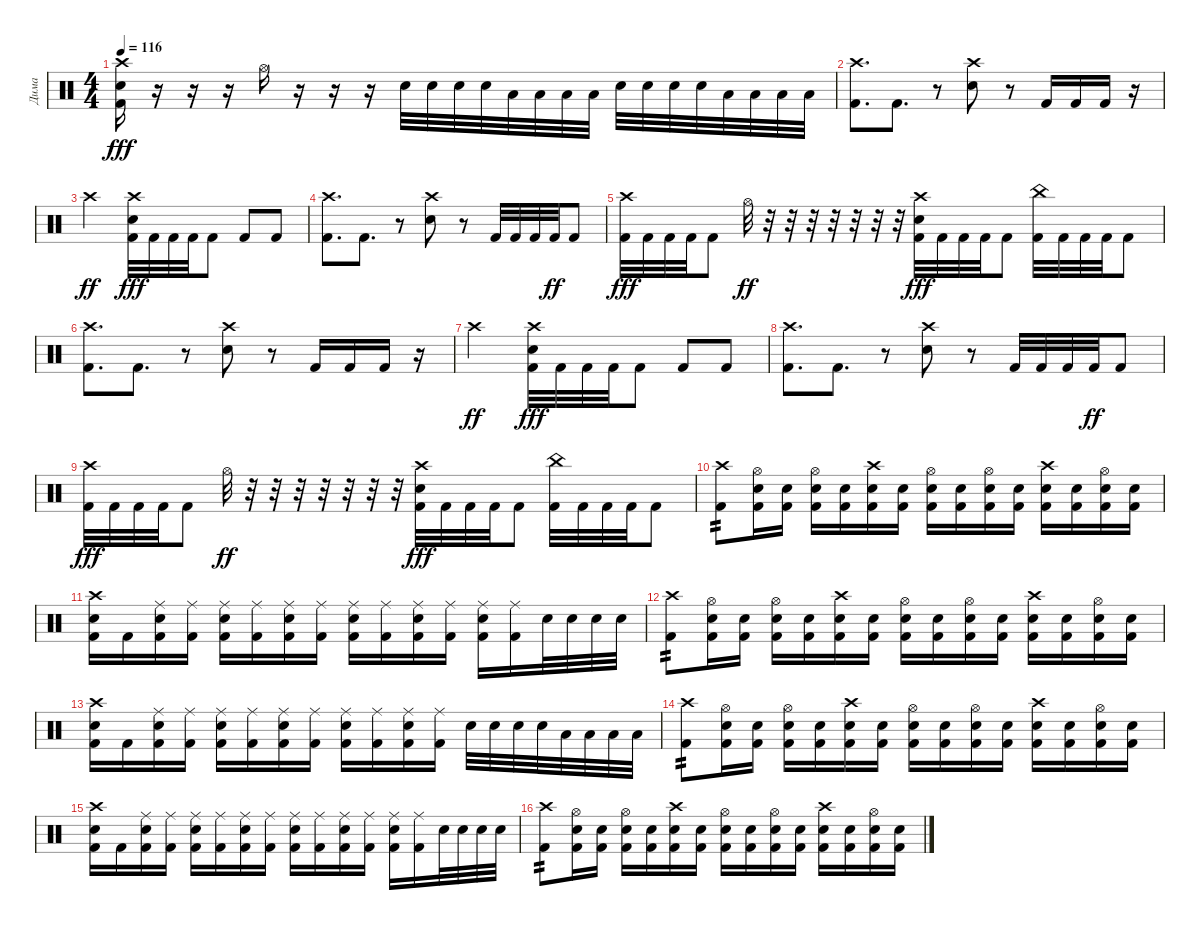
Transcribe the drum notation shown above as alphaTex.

\track ("Дима " "Дима ") {instrument percussion}
\staff {score}
\articulation defaults
\ts (4 4)
\tempo 116
\clef neutral
\ks c
("Crash high (hit)" "Snare (hit) 2" "Kick (hit) 2").16{dy fff} r.16 r.16 r.16 "Hi-Hat (open)".16 r.16 r.16 r.16 "Snare (hit) 2".32 "Snare (hit) 2".32 "Snare (hit) 2".32 "Snare (hit) 2".32 "Low Tom (hit)".32 "Low Tom (hit)".32 "Low Tom (hit)".32 "Low Tom (hit)".32 "Snare (hit) 2".32 "Snare (hit) 2".32 "Snare (hit) 2".32 "Snare (hit) 2".32 "Low Tom (hit)".32 "Low Tom (hit)".32 "Low Tom (hit)".32 "Low Tom (hit)".32 |
("Crash high (hit)" "Kick (hit) 2").8{d} "Kick (hit) 2".8{d} r.8 ("Crash high (hit)" "Snare (hit) 2").8 r.8 "Kick (hit) 2".16 "Kick (hit) 2".16 "Kick (hit) 2".16 r.16 |
"Crash high (hit)".2{dy ff} ("Crash high (hit)" "Snare (hit) 2" "Kick (hit) 2").32{dy fff} "Kick (hit) 2".32 "Kick (hit) 2".32 "Kick (hit) 2".32 "Kick (hit) 2".8 "Kick (hit) 2".8 "Kick (hit) 2".8 |
("Crash high (hit)" "Kick (hit) 2").8{d} "Kick (hit) 2".8{d} r.8 ("Crash high (hit)" "Snare (hit) 2").8 r.8 "Kick (hit) 2".32 "Kick (hit) 2".32 "Kick (hit) 2".32 "Kick (hit) 2".32{dy ff} "Kick (hit) 2".8 |
("Crash high (hit)" "Kick (hit) 2").32{dy fff} "Kick (hit) 2".32 "Kick (hit) 2".32 "Kick (hit) 2".32 "Kick (hit) 2".8 "Hi-Hat (open)".32{dy ff} r.32 r.32 r.32 r.32 r.32 r.32 r.32 ("Crash high (hit)" "Snare (hit) 2" "Kick (hit) 2").32{dy fff} "Kick (hit) 2".32 "Kick (hit) 2".32 "Kick (hit) 2".32 "Kick (hit) 2".8 ("China (hit)" "Kick (hit) 2").32 "Kick (hit) 2".32 "Kick (hit) 2".32 "Kick (hit) 2".32 "Kick (hit) 2".8 |
("Crash high (hit)" "Kick (hit) 2").8{d} "Kick (hit) 2".8{d} r.8 ("Crash high (hit)" "Snare (hit) 2").8 r.8 "Kick (hit) 2".16 "Kick (hit) 2".16 "Kick (hit) 2".16 r.16 |
"Crash high (hit)".2{dy ff} ("Crash high (hit)" "Snare (hit) 2" "Kick (hit) 2").32{dy fff} "Kick (hit) 2".32 "Kick (hit) 2".32 "Kick (hit) 2".32 "Kick (hit) 2".8 "Kick (hit) 2".8 "Kick (hit) 2".8 |
("Crash high (hit)" "Kick (hit) 2").8{d} "Kick (hit) 2".8{d} r.8 ("Crash high (hit)" "Snare (hit) 2").8 r.8 "Kick (hit) 2".32 "Kick (hit) 2".32 "Kick (hit) 2".32 "Kick (hit) 2".32{dy ff} "Kick (hit) 2".8 |
("Crash high (hit)" "Kick (hit) 2").32{dy fff} "Kick (hit) 2".32 "Kick (hit) 2".32 "Kick (hit) 2".32 "Kick (hit) 2".8 "Hi-Hat (open)".32{dy ff} r.32 r.32 r.32 r.32 r.32 r.32 r.32 ("Crash high (hit)" "Snare (hit) 2" "Kick (hit) 2").32{dy fff} "Kick (hit) 2".32 "Kick (hit) 2".32 "Kick (hit) 2".32 "Kick (hit) 2".8 ("China (hit)" "Kick (hit) 2").32 "Kick (hit) 2".32 "Kick (hit) 2".32 "Kick (hit) 2".32 "Kick (hit) 2".8 |
("Crash high (hit)" "Kick (hit) 2").8{tp 2} ("Hi-Hat (open)" "Snare (hit) 2" "Kick (hit) 2").16 ("Snare (hit) 2" "Kick (hit) 2").16 ("Hi-Hat (open)" "Snare (hit) 2" "Kick (hit) 2").16 ("Snare (hit) 2" "Kick (hit) 2").16 ("Crash high (hit)" "Snare (hit) 2" "Kick (hit) 2").16 ("Snare (hit) 2" "Kick (hit) 2").16 ("Hi-Hat (open)" "Snare (hit) 2" "Kick (hit) 2").16 ("Snare (hit) 2" "Kick (hit) 2").16 ("Hi-Hat (open)" "Snare (hit) 2" "Kick (hit) 2").16 ("Snare (hit) 2" "Kick (hit) 2").16 ("Crash high (hit)" "Snare (hit) 2" "Kick (hit) 2").16 ("Snare (hit) 2" "Kick (hit) 2").16 ("Hi-Hat (open)" "Snare (hit) 2" "Kick (hit) 2").16 ("Snare (hit) 2" "Kick (hit) 2").16 |
("Crash high (hit)" "Snare (hit) 2" "Kick (hit) 2").16 "Kick (hit) 2".16 ("Ride (middle)" "Snare (hit) 2" "Kick (hit) 2").16 ("Ride (middle)" "Kick (hit) 2").16 ("Ride (middle)" "Snare (hit) 2" "Kick (hit) 2").16 ("Ride (middle)" "Kick (hit) 2").16 ("Ride (middle)" "Snare (hit) 2" "Kick (hit) 2").16 ("Ride (middle)" "Kick (hit) 2").16 ("Ride (middle)" "Snare (hit) 2" "Kick (hit) 2").16 ("Ride (middle)" "Kick (hit) 2").16 ("Ride (middle)" "Snare (hit) 2" "Kick (hit) 2").16 ("Ride (middle)" "Kick (hit) 2").16 ("Ride (middle)" "Snare (hit) 2" "Kick (hit) 2").16 ("Ride (middle)" "Kick (hit) 2").16 "Snare (hit) 2".32 "Snare (hit) 2".32 "Snare (hit) 2".32 "Snare (hit) 2".32 |
("Crash high (hit)" "Kick (hit) 2").8{tp 2} ("Hi-Hat (open)" "Snare (hit) 2" "Kick (hit) 2").16 ("Snare (hit) 2" "Kick (hit) 2").16 ("Hi-Hat (open)" "Snare (hit) 2" "Kick (hit) 2").16 ("Snare (hit) 2" "Kick (hit) 2").16 ("Crash high (hit)" "Snare (hit) 2" "Kick (hit) 2").16 ("Snare (hit) 2" "Kick (hit) 2").16 ("Hi-Hat (open)" "Snare (hit) 2" "Kick (hit) 2").16 ("Snare (hit) 2" "Kick (hit) 2").16 ("Hi-Hat (open)" "Snare (hit) 2" "Kick (hit) 2").16 ("Snare (hit) 2" "Kick (hit) 2").16 ("Crash high (hit)" "Snare (hit) 2" "Kick (hit) 2").16 ("Snare (hit) 2" "Kick (hit) 2").16 ("Hi-Hat (open)" "Snare (hit) 2" "Kick (hit) 2").16 ("Snare (hit) 2" "Kick (hit) 2").16 |
("Crash high (hit)" "Snare (hit) 2" "Kick (hit) 2").16 "Kick (hit) 2".16 ("Ride (middle)" "Snare (hit) 2" "Kick (hit) 2").16 ("Ride (middle)" "Kick (hit) 2").16 ("Ride (middle)" "Snare (hit) 2" "Kick (hit) 2").16 ("Ride (middle)" "Kick (hit) 2").16 ("Ride (middle)" "Snare (hit) 2" "Kick (hit) 2").16 ("Ride (middle)" "Kick (hit) 2").16 ("Ride (middle)" "Snare (hit) 2" "Kick (hit) 2").16 ("Ride (middle)" "Kick (hit) 2").16 ("Ride (middle)" "Snare (hit) 2" "Kick (hit) 2").16 ("Ride (middle)" "Kick (hit) 2").16 "Snare (hit) 2".32 "Snare (hit) 2".32 "Snare (hit) 2".32 "Snare (hit) 2".32 "Low Tom (hit)".32 "Low Tom (hit)".32 "Low Tom (hit)".32 "Low Tom (hit)".32 |
("Crash high (hit)" "Kick (hit) 2").8{tp 2} ("Hi-Hat (open)" "Snare (hit) 2" "Kick (hit) 2").16 ("Snare (hit) 2" "Kick (hit) 2").16 ("Hi-Hat (open)" "Snare (hit) 2" "Kick (hit) 2").16 ("Snare (hit) 2" "Kick (hit) 2").16 ("Crash high (hit)" "Snare (hit) 2" "Kick (hit) 2").16 ("Snare (hit) 2" "Kick (hit) 2").16 ("Hi-Hat (open)" "Snare (hit) 2" "Kick (hit) 2").16 ("Snare (hit) 2" "Kick (hit) 2").16 ("Hi-Hat (open)" "Snare (hit) 2" "Kick (hit) 2").16 ("Snare (hit) 2" "Kick (hit) 2").16 ("Crash high (hit)" "Snare (hit) 2" "Kick (hit) 2").16 ("Snare (hit) 2" "Kick (hit) 2").16 ("Hi-Hat (open)" "Snare (hit) 2" "Kick (hit) 2").16 ("Snare (hit) 2" "Kick (hit) 2").16 |
("Crash high (hit)" "Snare (hit) 2" "Kick (hit) 2").16 "Kick (hit) 2".16 ("Ride (middle)" "Snare (hit) 2" "Kick (hit) 2").16 ("Ride (middle)" "Kick (hit) 2").16 ("Ride (middle)" "Snare (hit) 2" "Kick (hit) 2").16 ("Ride (middle)" "Kick (hit) 2").16 ("Ride (middle)" "Snare (hit) 2" "Kick (hit) 2").16 ("Ride (middle)" "Kick (hit) 2").16 ("Ride (middle)" "Snare (hit) 2" "Kick (hit) 2").16 ("Ride (middle)" "Kick (hit) 2").16 ("Ride (middle)" "Snare (hit) 2" "Kick (hit) 2").16 ("Ride (middle)" "Kick (hit) 2").16 ("Ride (middle)" "Snare (hit) 2" "Kick (hit) 2").16 ("Ride (middle)" "Kick (hit) 2").16 "Snare (hit) 2".32 "Snare (hit) 2".32 "Snare (hit) 2".32 "Snare (hit) 2".32 |
("Crash high (hit)" "Kick (hit) 2").8{tp 2} ("Hi-Hat (open)" "Snare (hit) 2" "Kick (hit) 2").16 ("Snare (hit) 2" "Kick (hit) 2").16 ("Hi-Hat (open)" "Snare (hit) 2" "Kick (hit) 2").16 ("Snare (hit) 2" "Kick (hit) 2").16 ("Crash high (hit)" "Snare (hit) 2" "Kick (hit) 2").16 ("Snare (hit) 2" "Kick (hit) 2").16 ("Hi-Hat (open)" "Snare (hit) 2" "Kick (hit) 2").16 ("Snare (hit) 2" "Kick (hit) 2").16 ("Hi-Hat (open)" "Snare (hit) 2" "Kick (hit) 2").16 ("Snare (hit) 2" "Kick (hit) 2").16 ("Crash high (hit)" "Snare (hit) 2" "Kick (hit) 2").16 ("Snare (hit) 2" "Kick (hit) 2").16 ("Hi-Hat (open)" "Snare (hit) 2" "Kick (hit) 2").16 ("Snare (hit) 2" "Kick (hit) 2").16
